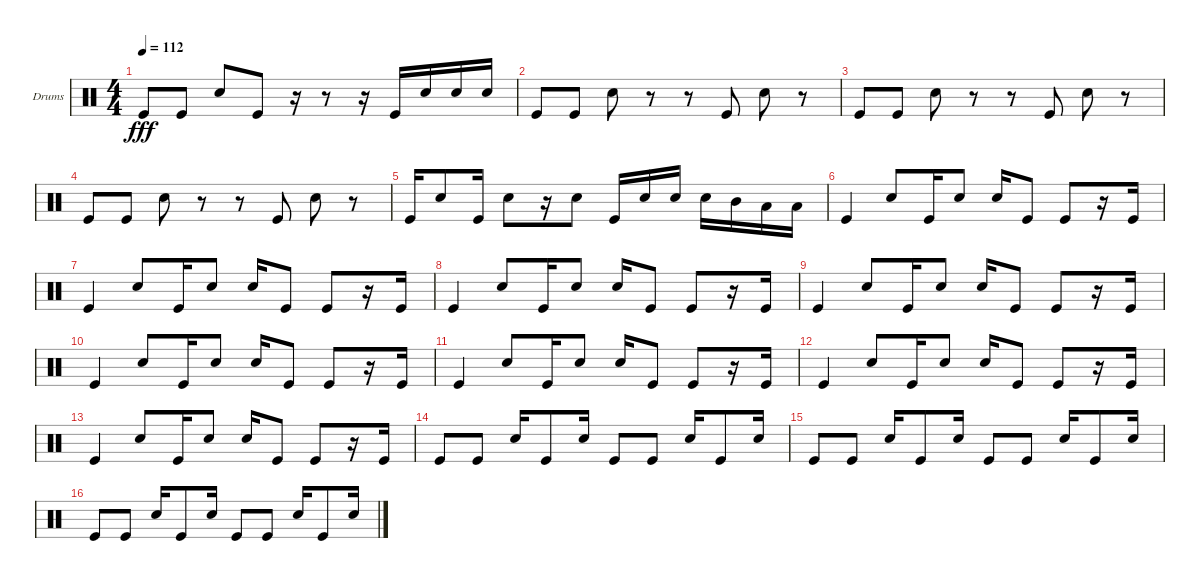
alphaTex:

\defaultSystemsLayout 4
\bracketExtendMode groupsimilarinstruments
\firstSystemTrackNameOrientation horizontal
\otherSystemsTrackNameOrientation horizontal
\track ("Пашок" "Drums") {instrument percussion}
\staff {score}
\articulation defaults
\ts (4 4)
\tempo 112
\clef neutral
\ks c "Kick (hit)".8{dy fff} "Kick (hit)".8 "Snare (hit) 2".8 "Kick (hit)".8
r.16 r.8 r.16 "Kick (hit)".16 "Snare (hit) 2".16 "Snare (hit) 2".16 "Snare (hit) 2".16 |
"Kick (hit)".8 "Kick (hit)".8 "Snare (hit) 2".8 r.8 r.8 "Kick (hit)".8 "Snare (hit) 2".8 r.8 |
"Kick (hit)".8 "Kick (hit)".8 "Snare (hit) 2".8 r.8 r.8 "Kick (hit)".8 "Snare (hit) 2".8 r.8 |
"Kick (hit)".8 "Kick (hit)".8 "Snare (hit) 2".8 r.8 r.8 "Kick (hit)".8 "Snare (hit) 2".8 r.8 |
"Kick (hit)".16 "Snare (hit) 2".8 "Kick (hit)".16 "Snare (hit) 2".8 r.16 "Snare (hit) 2".8 "Kick (hit)".16 "Snare (hit) 2".16 "Snare (hit) 2".16 "Snare (hit) 2".16 "Mid Tom (hit)".16 "Low Tom (hit)".16 "Low Tom (hit)".16 |
"Kick (hit)".4 "Snare (hit) 2".8 "Kick (hit)".16 "Snare (hit) 2".8 "Snare (hit) 2".16 "Kick (hit)".8 "Kick (hit)".8 r.16 "Kick (hit)".16 |
"Kick (hit)".4 "Snare (hit) 2".8 "Kick (hit)".16 "Snare (hit) 2".8 "Snare (hit) 2".16 "Kick (hit)".8 "Kick (hit)".8 r.16 "Kick (hit)".16 |
"Kick (hit)".4 "Snare (hit) 2".8 "Kick (hit)".16 "Snare (hit) 2".8 "Snare (hit) 2".16 "Kick (hit)".8 "Kick (hit)".8 r.16 "Kick (hit)".16 |
"Kick (hit)".4 "Snare (hit) 2".8 "Kick (hit)".16 "Snare (hit) 2".8 "Snare (hit) 2".16 "Kick (hit)".8 "Kick (hit)".8 r.16 "Kick (hit)".16 |
"Kick (hit)".4 "Snare (hit) 2".8 "Kick (hit)".16 "Snare (hit) 2".8 "Snare (hit) 2".16 "Kick (hit)".8 "Kick (hit)".8 r.16 "Kick (hit)".16 |
"Kick (hit)".4 "Snare (hit) 2".8 "Kick (hit)".16 "Snare (hit) 2".8 "Snare (hit) 2".16 "Kick (hit)".8 "Kick (hit)".8 r.16 "Kick (hit)".16 |
"Kick (hit)".4 "Snare (hit) 2".8 "Kick (hit)".16 "Snare (hit) 2".8 "Snare (hit) 2".16 "Kick (hit)".8 "Kick (hit)".8 r.16 "Kick (hit)".16 |
"Kick (hit)".4 "Snare (hit) 2".8 "Kick (hit)".16 "Snare (hit) 2".8 "Snare (hit) 2".16 "Kick (hit)".8 "Kick (hit)".8 r.16 "Kick (hit)".16 |
"Kick (hit)".8 "Kick (hit)".8 "Snare (hit) 2".16 "Kick (hit)".8 "Snare (hit) 2".16 "Kick (hit)".8 "Kick (hit)".8 "Snare (hit) 2".16 "Kick (hit)".8 "Snare (hit) 2".16 |
"Kick (hit)".8 "Kick (hit)".8 "Snare (hit) 2".16 "Kick (hit)".8 "Snare (hit) 2".16 "Kick (hit)".8 "Kick (hit)".8 "Snare (hit) 2".16 "Kick (hit)".8 "Snare (hit) 2".16 |
"Kick (hit)".8 "Kick (hit)".8 "Snare (hit) 2".16 "Kick (hit)".8 "Snare (hit) 2".16 "Kick (hit)".8 "Kick (hit)".8 "Snare (hit) 2".16 "Kick (hit)".8 "Snare (hit) 2".16
